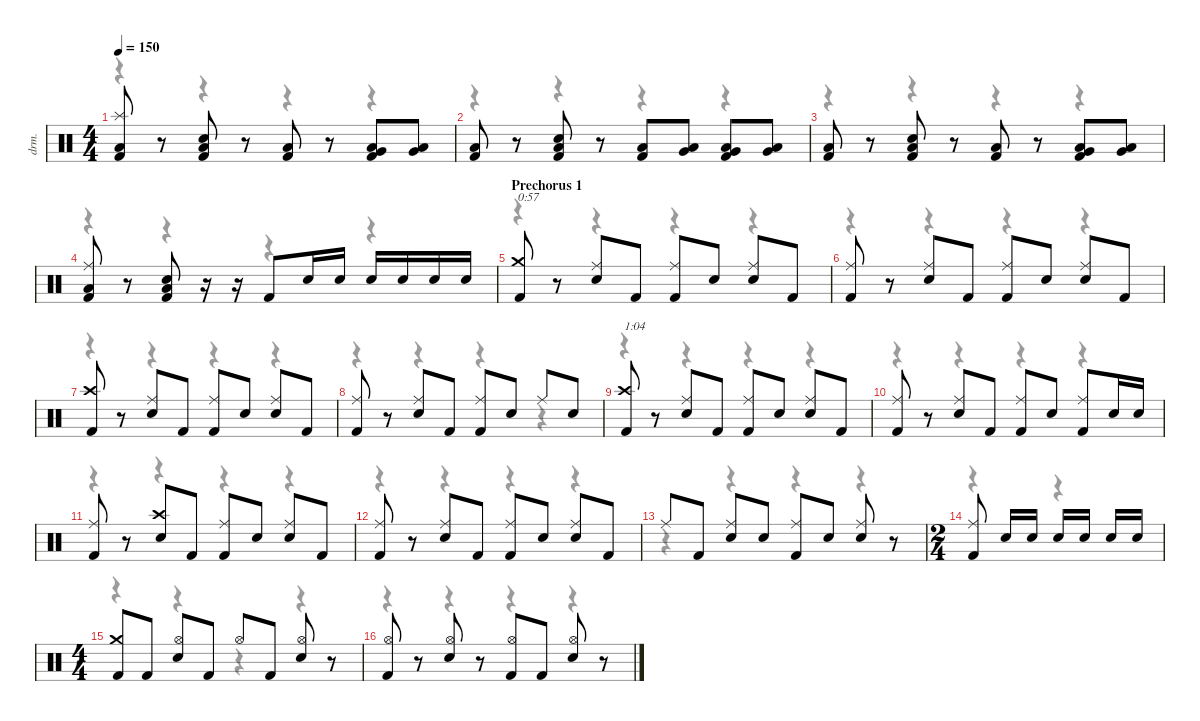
\defaultSystemsLayout 4
\hideDynamics
\bracketExtendMode nobrackets
\otherSystemsTrackNameOrientation horizontal
\track ("Drums" "drm.") {instrument percussion}
\staff {score}
\articulation defaults
\voice
\ts (4 4)
\tempo 150
\clef neutral
\ks c
("Splash (hit)" "Low Floor Tom (hit)" "Kick (hit) 2").8{dy fff beam Up} r.8{beam Up} ("Low Floor Tom (hit)" "Snare (hit) 2" "Kick (hit) 2").8{beam Up} r.8{beam Up} ("Low Floor Tom (hit)" "Kick (hit) 2").8{beam Up} r.8{beam Up} ("Low Floor Tom (hit)" "Very Low Tom (hit)" "Kick (hit) 2").8{beam Up} ("Low Floor Tom (hit)" "Very Low Tom (hit)").8{beam Up} |
("Low Floor Tom (hit)" "Kick (hit) 2").8{beam Up} r.8{beam Up} ("Low Floor Tom (hit)" "Snare (hit) 2" "Kick (hit) 2").8{beam Up} r.8{beam Up} ("Low Floor Tom (hit)" "Kick (hit) 2").8{beam Up} ("Low Floor Tom (hit)" "Very Low Tom (hit)").8{beam Up} ("Low Floor Tom (hit)" "Very Low Tom (hit)" "Kick (hit) 2").8{beam Up} ("Low Floor Tom (hit)" "Very Low Tom (hit)").8{beam Up} |
("Low Floor Tom (hit)" "Kick (hit) 2").8{beam Up} r.8{beam Up} ("Low Floor Tom (hit)" "Snare (hit) 2" "Kick (hit) 2").8{beam Up} r.8{beam Up} ("Low Floor Tom (hit)" "Kick (hit) 2").8{beam Up} r.8{beam Up} ("Low Floor Tom (hit)" "Very Low Tom (hit)" "Kick (hit) 2").8{beam Up} ("Low Floor Tom (hit)" "Very Low Tom (hit)").8{beam Up} |
("Ride (middle)" "Low Floor Tom (hit)" "Kick (hit) 2").8{beam Up} r.8{beam Up} ("Low Floor Tom (hit)" "Snare (hit) 2" "Kick (hit) 2").8{beam Up} r.16{beam Up} r.16{beam Up} "Kick (hit) 2".8{beam Up} "Snare (hit) 2".16{beam Up} "Snare (hit) 2".16{dy f beam Up} "Snare (hit) 2".16{dy fff beam Up} "Snare (hit) 2".16{beam Up} "Snare (hit) 2".16{beam Up} "Snare (hit) 2".16{beam Up} |
\section ("" "Prechorus 1")
("Crash medium (hit)" "Kick (hit) 2").8{txt "0:57" beam Up} r.8{beam Up} ("Ride (middle)" "Snare (hit) 2").8{dy f beam Up} "Kick (hit) 2".8{dy fff beam Up} ("Ride (middle)" "Kick (hit) 2").8{dy f beam Up} "Snare (hit) 2".8{dy fff beam Up} ("Ride (middle)" "Snare (hit) 2").8{dy f beam Up} "Kick (hit) 2".8{dy fff beam Up} |
("Ride (middle)" "Kick (hit) 2").8{dy f beam Up} r.8{beam Up} ("Ride (middle)" "Snare (hit) 2").8{beam Up} "Kick (hit) 2".8{dy fff beam Up} ("Ride (middle)" "Kick (hit) 2").8{dy f beam Up} "Snare (hit) 2".8{dy fff beam Up} ("Ride (middle)" "Snare (hit) 2").8{dy f beam Up} "Kick (hit) 2".8{dy fff beam Up} |
("Crash high (hit)" "Kick (hit) 2").8{beam Up} r.8{beam Up} ("Ride (middle)" "Snare (hit) 2").8{dy f beam Up} "Kick (hit) 2".8{dy fff beam Up} ("Ride (middle)" "Kick (hit) 2").8{dy f beam Up} "Snare (hit) 2".8{dy fff beam Up} ("Ride (middle)" "Snare (hit) 2").8{dy f beam Up} "Kick (hit) 2".8{dy fff beam Up} |
("Ride (middle)" "Kick (hit) 2").8{dy f beam Up} r.8{beam Up} ("Ride (middle)" "Snare (hit) 2").8{beam Up} "Kick (hit) 2".8{dy fff beam Up} ("Ride (middle)" "Kick (hit) 2").8{dy f beam Up} "Snare (hit) 2".8{dy fff beam Up} "Ride (middle)".8{dy f beam Up} "Snare (hit) 2".8{dy fff beam Up} |
("Crash high (hit)" "Kick (hit) 2").8{txt "1:04" beam Up} r.8{beam Up} ("Ride (middle)" "Snare (hit) 2").8{dy f beam Up} "Kick (hit) 2".8{dy fff beam Up} ("Ride (middle)" "Kick (hit) 2").8{dy f beam Up} "Snare (hit) 2".8{dy fff beam Up} ("Ride (middle)" "Snare (hit) 2").8{dy f beam Up} "Kick (hit) 2".8{dy fff beam Up} |
("Ride (middle)" "Kick (hit) 2").8{dy f beam Up} r.8{beam Up} ("Ride (middle)" "Snare (hit) 2").8{beam Up} "Kick (hit) 2".8{dy fff beam Up} ("Ride (middle)" "Kick (hit) 2").8{dy f beam Up} "Snare (hit) 2".8{dy fff beam Up} ("Ride (middle)" "Kick (hit) 2").8{dy f beam Up} "Snare (hit) 2".16{dy fff beam Up} "Snare (hit) 2".16{beam Up} |
("Ride (middle)" "Kick (hit) 2").8{dy f beam Up} r.8{beam Up} ("Crash high (hit)" "Snare (hit) 2").8{dy fff beam Up} "Kick (hit) 2".8{beam Up} ("Ride (middle)" "Kick (hit) 2").8{dy f beam Up} "Snare (hit) 2".8{dy fff beam Up} ("Ride (middle)" "Snare (hit) 2").8{dy f beam Up} "Kick (hit) 2".8{dy fff beam Up} |
("Ride (middle)" "Kick (hit) 2").8{dy f beam Up} r.8{beam Up} ("Ride (middle)" "Snare (hit) 2").8{beam Up} "Kick (hit) 2".8{dy fff beam Up} ("Ride (middle)" "Kick (hit) 2").8{dy f beam Up} "Snare (hit) 2".8{dy fff beam Up} ("Ride (middle)" "Snare (hit) 2").8{dy f beam Up} "Kick (hit) 2".8{dy fff beam Up} |
"Ride (middle)".8{dy f beam Up} "Kick (hit) 2".8{dy fff beam Up} ("Ride (middle)" "Snare (hit) 2").8{dy f beam Up} "Snare (hit) 2".8{dy fff beam Up} ("Ride (middle)" "Kick (hit) 2").8{dy f beam Up} "Snare (hit) 2".8{dy fff beam Up} ("Ride (middle)" "Snare (hit) 2").8{dy f beam Up} r.8{beam Up} |
\ts (2 4)
\beaming (8 1 1 1 1)
("Ride (middle)" "Kick (hit) 2").8{beam Up} "Snare (hit) 2".16{dy fff beam Up} "Snare (hit) 2".16{beam Up} "Snare (hit) 2".16{beam Up} "Snare (hit) 2".16{beam Up} "Snare (hit) 2".16{beam Up} "Snare (hit) 2".16{beam Up} |
\ts (4 4)
\beaming (8 2 2 2 2)
("Crash medium (hit)" "Kick (hit) 2").8{beam Up} "Kick (hit) 2".8{beam Up} ("Hi-Hat (open)" "Snare (hit) 2").8{dy f beam Up} "Kick (hit) 2".8{dy fff beam Up} "Hi-Hat (open)".8{dy f beam Up} "Kick (hit) 2".8{dy fff beam Up} ("Hi-Hat (open)" "Snare (hit) 2").8{dy f beam Up} r.8{beam Up} |
("Hi-Hat (open)" "Kick (hit) 2").8{beam Up} r.8{beam Up} ("Hi-Hat (open)" "Snare (hit) 2").8{beam Up} r.8{beam Up} ("Hi-Hat (open)" "Kick (hit) 2").8{beam Up} "Kick (hit) 2".8{dy fff beam Up} ("Hi-Hat (open)" "Snare (hit) 2").8{dy f beam Up} r.8{beam Up}
\voice
\clef neutral
\ottava regular
\simile none
\ks c
r.4{dy mf beam Down} r.4{beam Down} r.4{beam Down} r.4{beam Down} |
r.4{beam Down} r.4{beam Down} r.4{beam Down} r.4{beam Down} |
r.4{beam Down} r.4{beam Down} r.4{beam Down} r.4{beam Down} |
r.4{beam Down} r.4{beam Down} r.4{beam Down} r.4{beam Down} |
r.4{beam Down} r.4{beam Down} r.4{beam Down} r.4{beam Down} |
r.4{beam Down} r.4{beam Down} r.4{beam Down} r.4{beam Down} |
r.4{beam Down} r.4{beam Down} r.4{beam Down} r.4{beam Down} |
r.4{beam Down} r.4{beam Down} r.4{beam Down} r.4{beam Down} |
r.4{beam Down} r.4{beam Down} r.4{beam Down} r.4{beam Down} |
r.4{beam Down} r.4{beam Down} r.4{beam Down} r.4{beam Down} |
r.4{beam Down} r.4{beam Down} r.4{beam Down} r.4{beam Down} |
r.4{beam Down} r.4{beam Down} r.4{beam Down} r.4{beam Down} |
r.4{beam Down} r.4{beam Down} r.4{beam Down} r.4{beam Down} |
r.4{beam Down} r.4{beam Down} |
r.4{beam Down} r.4{beam Down} r.4{beam Down} r.4{beam Down} |
r.4{beam Down} r.4{beam Down} r.4{beam Down} r.4{beam Down}
